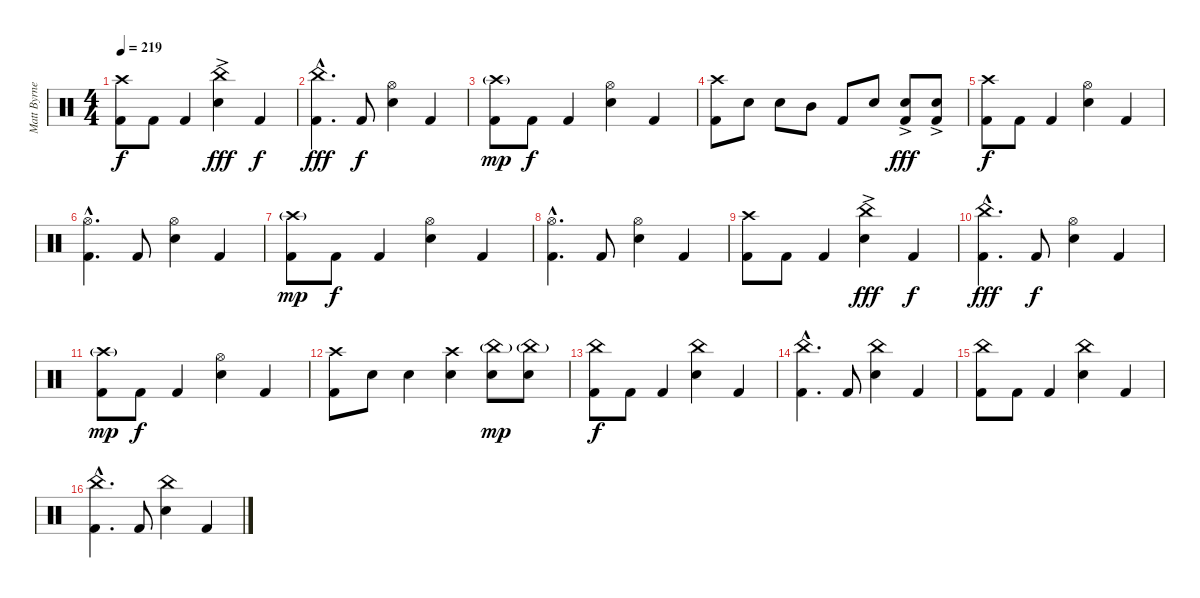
\track ("Matt Byrne (Drums)" "Matt Byrne") {instrument percussion}
\staff {score}
\articulation defaults
\ts (4 4)
\tempo 219
\clef neutral
\ks c
("Crash high (hit)" "Kick (hit) 2").8{dy f} "Kick (hit) 2".8 "Kick (hit) 2".4 ("China (hit)"{ac} "Snare (hit) 2").4{dy fff} "Kick (hit) 2".4{dy f} |
("China (hit)"{hac} "Kick (hit) 2"{hac}).4{d dy fff} "Kick (hit) 2".8{dy f} ("Hi-Hat (open)" "Snare (hit) 2").4 "Kick (hit) 2".4 |
("Crash high (hit)"{g} "Kick (hit) 2").8{dy mp} "Kick (hit) 2".8{dy f} "Kick (hit) 2".4 ("Hi-Hat (open)" "Snare (hit) 2").4 "Kick (hit) 2".4 |
("Kick (hit) 2" "Crash high (hit)").8 "Snare (hit) 2".8 "Snare (hit) 2".8 "Mid Tom (hit)".8 "Kick (hit) 2".8 "Snare (hit) 2".8 ("Kick (hit) 2"{ac} "Snare (hit) 2").8{dy fff} ("Kick (hit) 2"{ac} "Snare (hit) 2").8 |
("Crash high (hit)" "Kick (hit) 2").8{dy f} "Kick (hit) 2".8 "Kick (hit) 2".4 ("Hi-Hat (open)" "Snare (hit) 2").4 "Kick (hit) 2".4 |
("Hi-Hat (open)"{hac} "Kick (hit) 2"{hac}).4{d} "Kick (hit) 2".8 ("Hi-Hat (open)" "Snare (hit) 2").4 "Kick (hit) 2".4 |
("Crash high (hit)"{g} "Kick (hit) 2").8{dy mp} "Kick (hit) 2".8{dy f} "Kick (hit) 2".4 ("Hi-Hat (open)" "Snare (hit) 2").4 "Kick (hit) 2".4 |
("Hi-Hat (open)"{hac} "Kick (hit) 2"{hac}).4{d} "Kick (hit) 2".8 ("Hi-Hat (open)" "Snare (hit) 2").4 "Kick (hit) 2".4 |
("Crash high (hit)" "Kick (hit) 2").8 "Kick (hit) 2".8 "Kick (hit) 2".4 ("China (hit)"{ac} "Snare (hit) 2").4{dy fff} "Kick (hit) 2".4{dy f} |
("China (hit)"{hac} "Kick (hit) 2"{hac}).4{d dy fff} "Kick (hit) 2".8{dy f} ("Hi-Hat (open)" "Snare (hit) 2").4 "Kick (hit) 2".4 |
("Crash high (hit)"{g} "Kick (hit) 2").8{dy mp} "Kick (hit) 2".8{dy f} "Kick (hit) 2".4 ("Hi-Hat (open)" "Snare (hit) 2").4 "Kick (hit) 2".4 |
("Kick (hit) 2" "Crash high (hit)").8 "Snare (hit) 2".8 "Snare (hit) 2".4 ("Crash high (hit)" "Snare (hit) 2").4 ("China (hit)"{g} "Snare (hit) 2").8{dy mp} ("China (hit)"{g} "Snare (hit) 2").8 |
("China (hit)" "Kick (hit) 2").8{dy f} "Kick (hit) 2".8 "Kick (hit) 2".4 ("China (hit)" "Snare (hit) 2").4 "Kick (hit) 2".4 |
("China (hit)"{hac} "Kick (hit) 2"{hac}).4{d} "Kick (hit) 2".8 ("China (hit)" "Snare (hit) 2").4 "Kick (hit) 2".4 |
("China (hit)" "Kick (hit) 2").8 "Kick (hit) 2".8 "Kick (hit) 2".4 ("China (hit)" "Snare (hit) 2").4 "Kick (hit) 2".4 |
("China (hit)"{hac} "Kick (hit) 2"{hac}).4{d} "Kick (hit) 2".8 ("China (hit)" "Snare (hit) 2").4 "Kick (hit) 2".4
